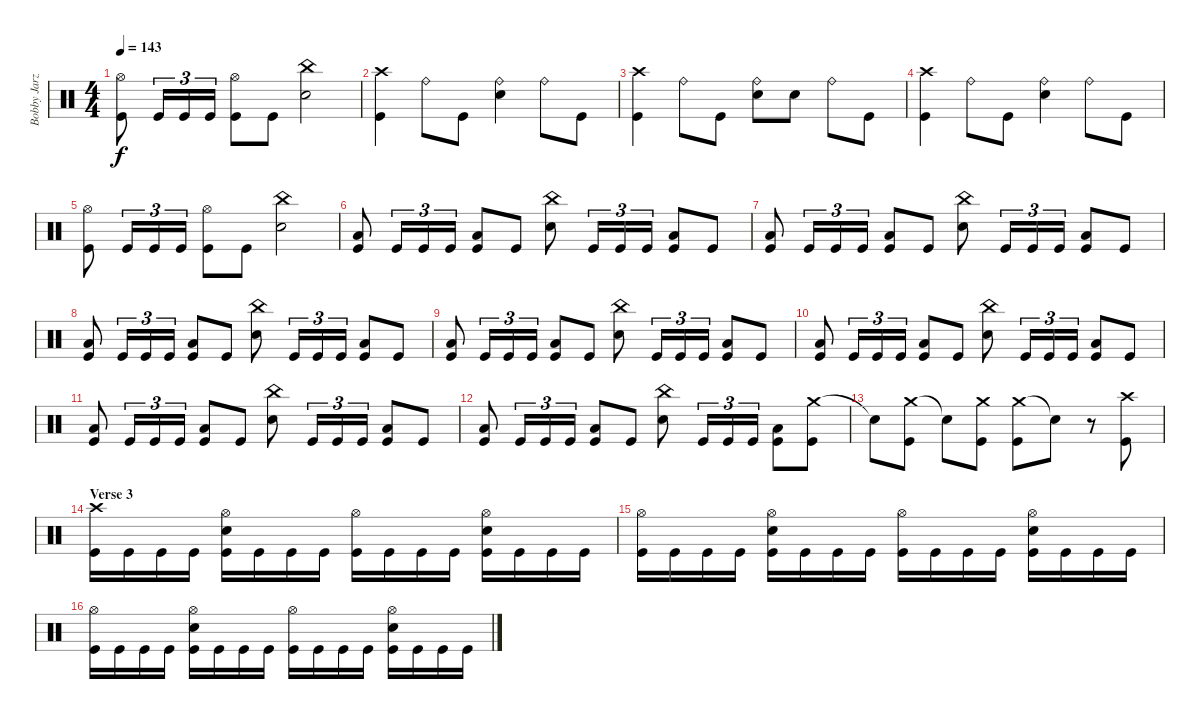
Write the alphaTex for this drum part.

\track ("Bobby Jarzombek" "Bobby Jarz") {instrument percussion}
\staff {score}
\articulation defaults
\ts (4 4)
\tempo 143
\clef neutral
\ks c
("Hi-Hat (open)" "Kick (hit)").8{dy f} "Kick (hit)".16{tu (3 2)} "Kick (hit)".16{tu (3 2)} "Kick (hit)".16{tu (3 2)} ("Hi-Hat (open)" "Kick (hit)").8 "Kick (hit)".8 ("China (hit)" "Electric Snare (hit)").2 |
("Crash high (hit)" "Kick (hit)").4 "Ride (bell)".8 "Kick (hit)".8 ("Ride (bell)" "Electric Snare (hit)").4 "Ride (bell)".8 "Kick (hit)".8 |
("Crash high (hit)" "Kick (hit)").4 "Ride (bell)".8 "Kick (hit)".8 ("Ride (bell)" "Electric Snare (hit)").8 "Electric Snare (hit)".8 "Ride (bell)".8 "Kick (hit)".8 |
("Crash high (hit)" "Kick (hit)").4 "Ride (bell)".8 "Kick (hit)".8 ("Ride (bell)" "Electric Snare (hit)").4 "Ride (bell)".8 "Kick (hit)".8 |
("Hi-Hat (open)" "Kick (hit)").8 "Kick (hit)".16{tu (3 2)} "Kick (hit)".16{tu (3 2)} "Kick (hit)".16{tu (3 2)} ("Hi-Hat (open)" "Kick (hit)").8 "Kick (hit)".8 ("China (hit)" "Electric Snare (hit)").2 |
("Low Tom (hit)" "Kick (hit)").8 "Kick (hit)".16{tu (3 2)} "Kick (hit)".16{tu (3 2)} "Kick (hit)".16{tu (3 2)} ("Low Tom (hit)" "Kick (hit)").8 "Kick (hit)".8 ("China (hit)" "Electric Snare (hit)").8 "Kick (hit)".16{tu (3 2)} "Kick (hit)".16{tu (3 2)} "Kick (hit)".16{tu (3 2)} ("Low Tom (hit)" "Kick (hit)").8 "Kick (hit)".8 |
("Low Tom (hit)" "Kick (hit)").8 "Kick (hit)".16{tu (3 2)} "Kick (hit)".16{tu (3 2)} "Kick (hit)".16{tu (3 2)} ("Low Tom (hit)" "Kick (hit)").8 "Kick (hit)".8 ("China (hit)" "Electric Snare (hit)").8 "Kick (hit)".16{tu (3 2)} "Kick (hit)".16{tu (3 2)} "Kick (hit)".16{tu (3 2)} ("Low Tom (hit)" "Kick (hit)").8 "Kick (hit)".8 |
("Low Tom (hit)" "Kick (hit)").8 "Kick (hit)".16{tu (3 2)} "Kick (hit)".16{tu (3 2)} "Kick (hit)".16{tu (3 2)} ("Low Tom (hit)" "Kick (hit)").8 "Kick (hit)".8 ("China (hit)" "Electric Snare (hit)").8 "Kick (hit)".16{tu (3 2)} "Kick (hit)".16{tu (3 2)} "Kick (hit)".16{tu (3 2)} ("Low Tom (hit)" "Kick (hit)").8 "Kick (hit)".8 |
("Low Tom (hit)" "Kick (hit)").8 "Kick (hit)".16{tu (3 2)} "Kick (hit)".16{tu (3 2)} "Kick (hit)".16{tu (3 2)} ("Low Tom (hit)" "Kick (hit)").8 "Kick (hit)".8 ("China (hit)" "Electric Snare (hit)").8 "Kick (hit)".16{tu (3 2)} "Kick (hit)".16{tu (3 2)} "Kick (hit)".16{tu (3 2)} ("Low Tom (hit)" "Kick (hit)").8 "Kick (hit)".8 |
("Low Tom (hit)" "Kick (hit)").8 "Kick (hit)".16{tu (3 2)} "Kick (hit)".16{tu (3 2)} "Kick (hit)".16{tu (3 2)} ("Low Tom (hit)" "Kick (hit)").8 "Kick (hit)".8 ("China (hit)" "Electric Snare (hit)").8 "Kick (hit)".16{tu (3 2)} "Kick (hit)".16{tu (3 2)} "Kick (hit)".16{tu (3 2)} ("Low Tom (hit)" "Kick (hit)").8 "Kick (hit)".8 |
("Low Tom (hit)" "Kick (hit)").8 "Kick (hit)".16{tu (3 2)} "Kick (hit)".16{tu (3 2)} "Kick (hit)".16{tu (3 2)} ("Low Tom (hit)" "Kick (hit)").8 "Kick (hit)".8 ("China (hit)" "Electric Snare (hit)").8 "Kick (hit)".16{tu (3 2)} "Kick (hit)".16{tu (3 2)} "Kick (hit)".16{tu (3 2)} ("Low Tom (hit)" "Kick (hit)").8 "Kick (hit)".8 |
("Low Tom (hit)" "Kick (hit)").8 "Kick (hit)".16{tu (3 2)} "Kick (hit)".16{tu (3 2)} "Kick (hit)".16{tu (3 2)} ("Low Tom (hit)" "Kick (hit)").8 "Kick (hit)".8 ("China (hit)" "Electric Snare (hit)").8 "Kick (hit)".16{tu (3 2)} "Kick (hit)".16{tu (3 2)} "Kick (hit)".16{tu (3 2)} ("Low Tom (hit)" "Kick (hit)").8 ("Crash medium (hit)" "Kick (hit)").8 |
"Snare (hit)"{t}.8{volume 0} ("Crash medium (hit)" "Kick (hit)").8{volume 13} "Snare (hit)"{t}.8{volume 0} ("Crash medium (hit)" "Kick (hit)").8{volume 13} ("Crash medium (hit)" "Kick (hit)").8 "Snare (hit)"{t}.8{volume 0} r.8 ("Crash high (hit)" "Kick (hit)").8{volume 14} |
\section ("" "Verse 3")
("Crash high (hit)" "Kick (hit)").16{volume 13} "Kick (hit)".16 "Kick (hit)".16 "Kick (hit)".16 ("Hi-Hat (open)" "Electric Snare (hit)" "Kick (hit)").16 "Kick (hit)".16 "Kick (hit)".16 "Kick (hit)".16 ("Hi-Hat (open)" "Kick (hit)").16 "Kick (hit)".16 "Kick (hit)".16 "Kick (hit)".16 ("Hi-Hat (open)" "Electric Snare (hit)" "Kick (hit)").16 "Kick (hit)".16 "Kick (hit)".16 "Kick (hit)".16 |
("Hi-Hat (open)" "Kick (hit)").16 "Kick (hit)".16 "Kick (hit)".16 "Kick (hit)".16 ("Hi-Hat (open)" "Electric Snare (hit)" "Kick (hit)").16 "Kick (hit)".16 "Kick (hit)".16 "Kick (hit)".16 ("Hi-Hat (open)" "Kick (hit)").16 "Kick (hit)".16 "Kick (hit)".16 "Kick (hit)".16 ("Hi-Hat (open)" "Electric Snare (hit)" "Kick (hit)").16 "Kick (hit)".16 "Kick (hit)".16 "Kick (hit)".16 |
("Hi-Hat (open)" "Kick (hit)").16 "Kick (hit)".16 "Kick (hit)".16 "Kick (hit)".16 ("Hi-Hat (open)" "Electric Snare (hit)" "Kick (hit)").16 "Kick (hit)".16 "Kick (hit)".16 "Kick (hit)".16 ("Hi-Hat (open)" "Kick (hit)").16 "Kick (hit)".16 "Kick (hit)".16 "Kick (hit)".16 ("Hi-Hat (open)" "Electric Snare (hit)" "Kick (hit)").16 "Kick (hit)".16 "Kick (hit)".16 "Kick (hit)".16
